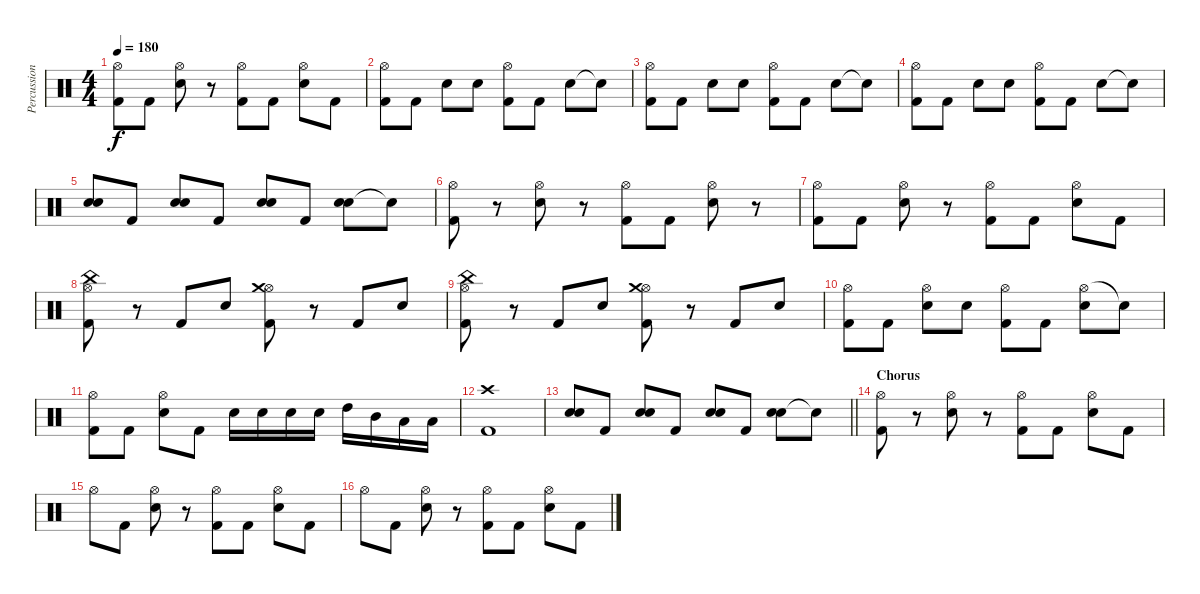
\track ("Percussion" "Percussion") {instrument percussion}
\staff {score}
\articulation defaults
\ts (4 4)
\tempo 180
\clef neutral
\ks c
("Hi-Hat (open)" "Kick (hit) 2").8{dy f} "Kick (hit) 2".8 ("Hi-Hat (open)" "Electric Snare (hit)").8 r.8 ("Hi-Hat (open)" "Kick (hit) 2").8 "Kick (hit) 2".8 ("Hi-Hat (open)" "Electric Snare (hit)").8 "Kick (hit) 2".8 |
("Hi-Hat (open)" "Kick (hit) 2").8 "Kick (hit) 2".8 "Electric Snare (hit)".8 "Electric Snare (hit)".8 ("Hi-Hat (open)" "Kick (hit) 2").8 "Kick (hit) 2".8 "Electric Snare (hit)".8 "Snare (hit)"{t}.8 |
("Hi-Hat (open)" "Kick (hit) 2").8 "Kick (hit) 2".8 "Electric Snare (hit)".8 "Electric Snare (hit)".8 ("Hi-Hat (open)" "Kick (hit) 2").8 "Kick (hit) 2".8 "Electric Snare (hit)".8 "Snare (hit)"{t}.8 |
("Hi-Hat (open)" "Kick (hit) 2").8 "Kick (hit) 2".8 "Electric Snare (hit)".8 "Electric Snare (hit)".8 ("Hi-Hat (open)" "Kick (hit) 2").8 "Kick (hit) 2".8 "Electric Snare (hit)".8 "Snare (hit)"{t}.8 |
("Snare (hit) 2" "Electric Snare (hit)").8 "Kick (hit) 2".8 ("Snare (hit) 2" "Electric Snare (hit)").8 "Kick (hit) 2".8 ("Snare (hit) 2" "Electric Snare (hit)").8 "Kick (hit) 2".8 ("Snare (hit) 2" "Electric Snare (hit)").8 "Snare (hit)"{t}.8 |
("Hi-Hat (open)" "Kick (hit) 2").8 r.8 ("Hi-Hat (open)" "Electric Snare (hit)").8 r.8 ("Hi-Hat (open)" "Kick (hit) 2").8 "Kick (hit) 2".8 ("Hi-Hat (open)" "Electric Snare (hit)").8 r.8 |
("Hi-Hat (open)" "Kick (hit) 2").8 "Kick (hit) 2".8 ("Hi-Hat (open)" "Electric Snare (hit)").8 r.8 ("Hi-Hat (open)" "Kick (hit) 2").8 "Kick (hit) 2".8 ("Hi-Hat (open)" "Electric Snare (hit)").8 "Kick (hit) 2".8 |
("China (hit)" "Hi-Hat (open)" "Kick (hit) 2").8 r.8 "Kick (hit) 2".8 "Electric Snare (hit)".8 ("Hi-Hat (open)" "Crash medium (hit)" "Kick (hit) 2").8 r.8 "Kick (hit) 2".8 "Electric Snare (hit)".8 |
("Hi-Hat (open)" "China (hit)" "Kick (hit) 2").8 r.8 "Kick (hit) 2".8 "Electric Snare (hit)".8 ("Hi-Hat (open)" "Crash medium (hit)" "Kick (hit) 2").8 r.8 "Kick (hit) 2".8 "Electric Snare (hit)".8 |
("Hi-Hat (open)" "Kick (hit) 2").8 "Kick (hit) 2".8 ("Hi-Hat (open)" "Electric Snare (hit)").8 "Electric Snare (hit)".8 ("Hi-Hat (open)" "Kick (hit) 2").8 "Kick (hit) 2".8 ("Hi-Hat (open)" "Electric Snare (hit)").8 "Snare (hit)"{t}.8 |
("Hi-Hat (open)" "Kick (hit) 2").8 "Kick (hit) 2".8 ("Hi-Hat (open)" "Electric Snare (hit)").8 "Kick (hit) 2".8 "Electric Snare (hit)".16 "Electric Snare (hit)".16 "Electric Snare (hit)".16 "Electric Snare (hit)".16 "High Tom (hit)".16 "Mid Tom (hit)".16 "Low Tom (hit)".16 "Low Tom (hit)".16 |
("Crash high (hit)" "Kick (hit) 2").1 |
\barLineRight lightlight
("Snare (hit) 2" "Electric Snare (hit)").8 "Kick (hit) 2".8 ("Snare (hit) 2" "Electric Snare (hit)").8 "Kick (hit) 2".8 ("Snare (hit) 2" "Electric Snare (hit)").8 "Kick (hit) 2".8 ("Snare (hit) 2" "Electric Snare (hit)").8 "Snare (hit)"{t}.8 |
\section ("" "Chorus")
("Hi-Hat (open)" "Kick (hit) 2").8 r.8 ("Hi-Hat (open)" "Electric Snare (hit)").8 r.8 ("Hi-Hat (open)" "Kick (hit) 2").8 "Kick (hit) 2".8 ("Hi-Hat (open)" "Electric Snare (hit)").8 "Kick (hit) 2".8 |
"Hi-Hat (open)".8 "Kick (hit) 2".8 ("Hi-Hat (open)" "Electric Snare (hit)").8 r.8 ("Hi-Hat (open)" "Kick (hit) 2").8 "Kick (hit) 2".8 ("Hi-Hat (open)" "Electric Snare (hit)").8 "Kick (hit) 2".8 |
"Hi-Hat (open)".8 "Kick (hit) 2".8 ("Hi-Hat (open)" "Electric Snare (hit)").8 r.8 ("Hi-Hat (open)" "Kick (hit) 2").8 "Kick (hit) 2".8 ("Hi-Hat (open)" "Electric Snare (hit)").8 "Kick (hit) 2".8
